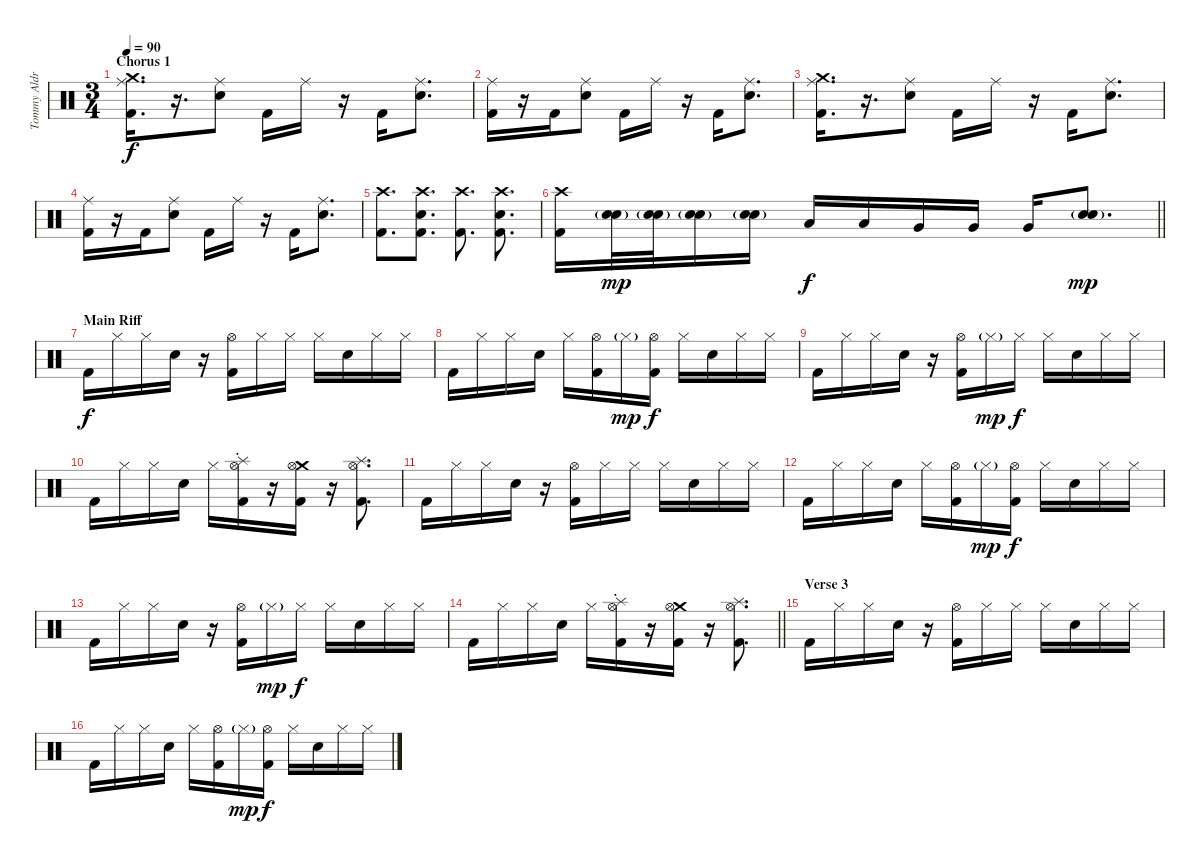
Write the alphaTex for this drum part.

\track ("Tommy Aldridge" "Tommy Aldr") {instrument percussion}
\staff {score}
\articulation defaults
\ts (3 4)
\section ("" "Chorus 1")
\tempo 90
\clef neutral
\ks c
("Crash medium (hit)" "Ride (middle)" "Kick (hit) 2").16{d dy f} r.16{d} ("Ride (middle)" "Snare (hit) 2").8 "Kick (hit) 2".16 "Ride (middle)".16 r.16 "Kick (hit) 2".16 ("Ride (middle)" "Snare (hit) 2").8{d} |
("Ride (middle)" "Kick (hit) 2").16 r.16 "Kick (hit) 2".16 ("Ride (middle)" "Snare (hit) 2").8 "Kick (hit) 2".16 "Ride (middle)".16 r.16 "Kick (hit) 2".16 ("Ride (middle)" "Snare (hit) 2").8{d} |
("Crash medium (hit)" "Ride (middle)" "Kick (hit) 2").16{d} r.16{d} ("Ride (middle)" "Snare (hit) 2").8 "Kick (hit) 2".16 "Ride (middle)".16 r.16 "Kick (hit) 2".16 ("Ride (middle)" "Snare (hit) 2").8{d} |
("Ride (middle)" "Kick (hit) 2").16 r.16 "Kick (hit) 2".16 ("Ride (middle)" "Snare (hit) 2").8 "Kick (hit) 2".16 "Ride (middle)".16 r.16 "Kick (hit) 2".16 ("Ride (middle)" "Snare (hit) 2").8{d} |
("Crash high (hit)" "Kick (hit) 2").8{d} ("Kick (hit) 2" "Crash high (hit)" "Snare (hit) 2").8{d} ("Crash high (hit)" "Kick (hit) 2").8{d} ("Kick (hit) 2" "Crash high (hit)" "Snare (hit) 2").8{d} |
\barLineRight lightlight
("Crash high (hit)" "Kick (hit) 2").16 ("Snare (hit) 2"{g} "Electric Snare (hit)").32{dy mp} ("Snare (hit) 2"{g} "Electric Snare (hit)").32 ("Snare (hit) 2"{g} "Electric Snare (hit)").16 ("Snare (hit) 2"{g} "Electric Snare (hit)").16 "Low Tom (hit)".16{dy f} "Low Tom (hit)".16 "Very Low Tom (hit)".16 "Very Low Tom (hit)".16 "Very Low Tom (hit)".16 ("Snare (hit) 2"{g} "Electric Snare (hit)").8{d dy mp} |
\section ("" "Main Riff")
"Kick (hit) 2".16{dy f} "Hi-Hat (closed)".16 "Hi-Hat (closed)".16 "Snare (hit) 2".16 r.16 ("Hi-Hat (open)" "Kick (hit) 2").16 "Hi-Hat (closed)".16 "Hi-Hat (closed)".16 "Hi-Hat (closed)".16 "Snare (hit) 2".16 "Hi-Hat (closed)".16 "Hi-Hat (closed)".16 |
"Kick (hit) 2".16 "Hi-Hat (closed)".16 "Hi-Hat (closed)".16 "Snare (hit) 2".16 "Hi-Hat (closed)".16 ("Hi-Hat (open)" "Kick (hit) 2").16 "Hi-Hat (closed)"{g}.16{dy mp} ("Hi-Hat (open)" "Kick (hit) 2").16{dy f} "Hi-Hat (closed)".16 "Snare (hit) 2".16 "Hi-Hat (closed)".16 "Hi-Hat (closed)".16 |
"Kick (hit) 2".16 "Hi-Hat (closed)".16 "Hi-Hat (closed)".16 "Snare (hit) 2".16 r.16 ("Hi-Hat (open)" "Kick (hit) 2").16 "Hi-Hat (closed)"{g}.16{dy mp} "Hi-Hat (closed)".16{dy f} "Hi-Hat (closed)".16 "Snare (hit) 2".16 "Hi-Hat (closed)".16 "Hi-Hat (closed)".16 |
"Kick (hit) 2".16 "Hi-Hat (closed)".16 "Hi-Hat (closed)".16 "Snare (hit) 2".16 "Hi-Hat (closed)".16 ("Splash (hit)" "Hi-Hat (open)"{st} "Kick (hit) 2").16 r.16 ("Crash medium (hit)" "Hi-Hat (open)" "Kick (hit) 2").16 r.16 ("Splash (hit)" "Hi-Hat (open)" "Kick (hit) 2").8{d} |
"Kick (hit) 2".16 "Hi-Hat (closed)".16 "Hi-Hat (closed)".16 "Snare (hit) 2".16 r.16 ("Hi-Hat (open)" "Kick (hit) 2").16 "Hi-Hat (closed)".16 "Hi-Hat (closed)".16 "Hi-Hat (closed)".16 "Snare (hit) 2".16 "Hi-Hat (closed)".16 "Hi-Hat (closed)".16 |
"Kick (hit) 2".16 "Hi-Hat (closed)".16 "Hi-Hat (closed)".16 "Snare (hit) 2".16 "Hi-Hat (closed)".16 ("Hi-Hat (open)" "Kick (hit) 2").16 "Hi-Hat (closed)"{g}.16{dy mp} ("Hi-Hat (open)" "Kick (hit) 2").16{dy f} "Hi-Hat (closed)".16 "Snare (hit) 2".16 "Hi-Hat (closed)".16 "Hi-Hat (closed)".16 |
"Kick (hit) 2".16 "Hi-Hat (closed)".16 "Hi-Hat (closed)".16 "Snare (hit) 2".16 r.16 ("Hi-Hat (open)" "Kick (hit) 2").16 "Hi-Hat (closed)"{g}.16{dy mp} "Hi-Hat (closed)".16{dy f} "Hi-Hat (closed)".16 "Snare (hit) 2".16 "Hi-Hat (closed)".16 "Hi-Hat (closed)".16 |
\barLineRight lightlight "Kick (hit) 2".16 "Hi-Hat (closed)".16 "Hi-Hat (closed)".16 "Snare (hit) 2".16 "Hi-Hat (closed)".16
("Splash (hit)" "Hi-Hat (open)"{st} "Kick (hit) 2").16 r.16 ("Crash medium (hit)" "Hi-Hat (open)" "Kick (hit) 2").16 r.16 ("Splash (hit)" "Hi-Hat (open)" "Kick (hit) 2").8{d} |
\section ("" "Verse 3")
"Kick (hit) 2".16 "Hi-Hat (closed)".16 "Hi-Hat (closed)".16 "Snare (hit) 2".16 r.16 ("Hi-Hat (open)" "Kick (hit) 2").16 "Hi-Hat (closed)".16 "Hi-Hat (closed)".16 "Hi-Hat (closed)".16 "Snare (hit) 2".16 "Hi-Hat (closed)".16 "Hi-Hat (closed)".16 |
"Kick (hit) 2".16 "Hi-Hat (closed)".16 "Hi-Hat (closed)".16 "Snare (hit) 2".16 "Hi-Hat (closed)".16 ("Hi-Hat (open)" "Kick (hit) 2").16 "Hi-Hat (closed)"{g}.16{dy mp} ("Hi-Hat (open)" "Kick (hit) 2").16{dy f} "Hi-Hat (closed)".16 "Snare (hit) 2".16 "Hi-Hat (closed)".16 "Hi-Hat (closed)".16
